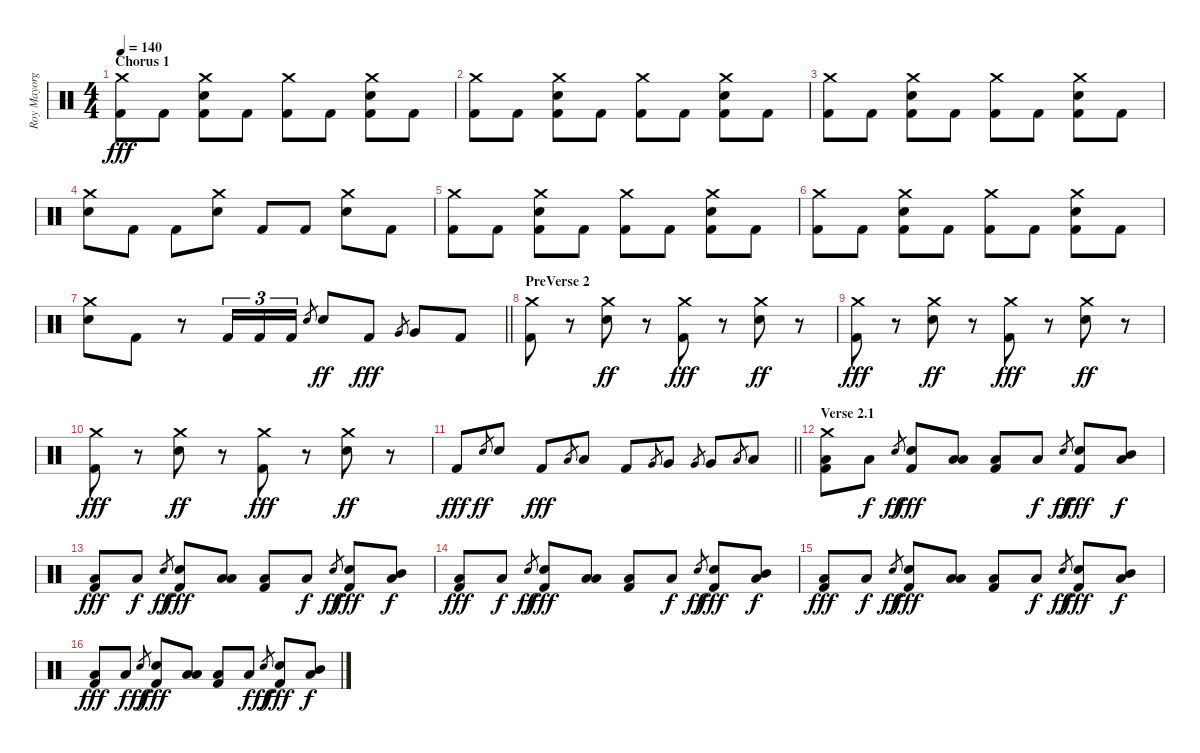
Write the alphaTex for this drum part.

\track ("Roy Mayorga" "Roy Mayorg") {instrument percussion}
\staff {score}
\articulation defaults
\ts (4 4)
\section ("" "Chorus 1")
\tempo 140
\clef neutral
\ks c
("Crash medium (hit)" "Kick (hit) 2").8{dy fff} "Kick (hit) 2".8 ("Crash medium (hit)" "Electric Snare (hit)" "Kick (hit) 2").8 "Kick (hit) 2".8 ("Crash medium (hit)" "Kick (hit) 2").8 "Kick (hit) 2".8 ("Crash medium (hit)" "Electric Snare (hit)" "Kick (hit) 2").8 "Kick (hit) 2".8 |
("Crash medium (hit)" "Kick (hit) 2").8 "Kick (hit) 2".8 ("Crash medium (hit)" "Electric Snare (hit)" "Kick (hit) 2").8 "Kick (hit) 2".8 ("Crash medium (hit)" "Kick (hit) 2").8 "Kick (hit) 2".8 ("Crash medium (hit)" "Electric Snare (hit)" "Kick (hit) 2").8 "Kick (hit) 2".8 |
("Crash medium (hit)" "Kick (hit) 2").8 "Kick (hit) 2".8 ("Crash medium (hit)" "Electric Snare (hit)" "Kick (hit) 2").8 "Kick (hit) 2".8 ("Crash medium (hit)" "Kick (hit) 2").8 "Kick (hit) 2".8 ("Crash medium (hit)" "Electric Snare (hit)" "Kick (hit) 2").8 "Kick (hit) 2".8 |
("Crash medium (hit)" "Electric Snare (hit)").8 "Kick (hit) 2".8 "Kick (hit) 2".8 ("Crash medium (hit)" "Electric Snare (hit)").8 "Kick (hit) 2".8 "Kick (hit) 2".8 ("Crash medium (hit)" "Electric Snare (hit)").8 "Kick (hit) 2".8 |
("Crash medium (hit)" "Kick (hit) 2").8 "Kick (hit) 2".8 ("Crash medium (hit)" "Electric Snare (hit)" "Kick (hit) 2").8 "Kick (hit) 2".8 ("Crash medium (hit)" "Kick (hit) 2").8 "Kick (hit) 2".8 ("Crash medium (hit)" "Electric Snare (hit)" "Kick (hit) 2").8 "Kick (hit) 2".8 |
("Crash medium (hit)" "Kick (hit) 2").8 "Kick (hit) 2".8 ("Crash medium (hit)" "Electric Snare (hit)" "Kick (hit) 2").8 "Kick (hit) 2".8 ("Crash medium (hit)" "Kick (hit) 2").8 "Kick (hit) 2".8 ("Crash medium (hit)" "Electric Snare (hit)" "Kick (hit) 2").8 "Kick (hit) 2".8 |
\barLineRight lightlight
("Crash medium (hit)" "Electric Snare (hit)").8 "Kick (hit) 2".8 r.8 "Kick (hit) 2".16{tu (3 2)} "Kick (hit) 2".16{tu (3 2)} "Kick (hit) 2".16{tu (3 2)} "Electric Snare (hit)".8{gr} "Electric Snare (hit)".8{dy ff} "Kick (hit) 2".8{dy fff} "Very Low Tom (hit)".8{gr} "Very Low Tom (hit)".8 "Kick (hit) 2".8 |
\section ("" "PreVerse 2")
("Crash medium (hit)" "Kick (hit) 2").8 r.8 ("Crash medium (hit)" "Electric Snare (hit)").8{dy ff} r.8 ("Crash medium (hit)" "Kick (hit) 2").8{dy fff} r.8 ("Crash medium (hit)" "Electric Snare (hit)").8{dy ff} r.8 |
("Crash medium (hit)" "Kick (hit) 2").8{dy fff} r.8 ("Crash medium (hit)" "Electric Snare (hit)").8{dy ff} r.8 ("Crash medium (hit)" "Kick (hit) 2").8{dy fff} r.8 ("Crash medium (hit)" "Electric Snare (hit)").8{dy ff} r.8 |
("Crash medium (hit)" "Kick (hit) 2").8{dy fff} r.8 ("Crash medium (hit)" "Electric Snare (hit)").8{dy ff} r.8 ("Crash medium (hit)" "Kick (hit) 2").8{dy fff} r.8 ("Crash medium (hit)" "Electric Snare (hit)").8{dy ff} r.8 |
\barLineRight lightlight "Kick (hit) 2".8{dy fff} "Electric Snare (hit)".8{gr dy ff} "Electric Snare (hit)".8 "Kick (hit) 2".8{dy fff} "Low Tom (hit)".8{gr} "Low Tom (hit)".8 "Kick (hit) 2".8 "Very Low Tom (hit)".8{gr} "Very Low Tom (hit)".8 "Very Low Tom (hit)".8{gr} "Very Low Tom (hit)".8 "Low Floor Tom (hit)".8{gr} "Low Floor Tom (hit)".8
|
\section ("" "Verse 2.1")
("Crash medium (hit)" "Low Floor Tom (hit)" "Kick (hit) 2").8 "Low Floor Tom (hit)".8{dy f} "Electric Snare (hit)".8{gr dy ff} ("Electric Snare (hit)" "Kick (hit) 2").8{dy fff} ("Low Tom (hit)" "Low Floor Tom (hit)").8 ("Low Floor Tom (hit)" "Kick (hit) 2").8 "Low Floor Tom (hit)".8{dy f} "Electric Snare (hit)".8{gr dy ff} ("Electric Snare (hit)" "Kick (hit) 2").8{dy fff} ("Mid Tom (hit)" "Low Floor Tom (hit)").8{dy f} |
("Low Floor Tom (hit)" "Kick (hit) 2").8{dy fff} "Low Floor Tom (hit)".8{dy f} "Electric Snare (hit)".8{gr dy ff} ("Electric Snare (hit)" "Kick (hit) 2").8{dy fff} ("Low Tom (hit)" "Low Floor Tom (hit)").8 ("Low Floor Tom (hit)" "Kick (hit) 2").8 "Low Floor Tom (hit)".8{dy f} "Electric Snare (hit)".8{gr dy ff} ("Electric Snare (hit)" "Kick (hit) 2").8{dy fff} ("Mid Tom (hit)" "Low Floor Tom (hit)").8{dy f} |
("Low Floor Tom (hit)" "Kick (hit) 2").8{dy fff} "Low Floor Tom (hit)".8{dy f} "Electric Snare (hit)".8{gr dy ff} ("Electric Snare (hit)" "Kick (hit) 2").8{dy fff} ("Low Tom (hit)" "Low Floor Tom (hit)").8 ("Low Floor Tom (hit)" "Kick (hit) 2").8 "Low Floor Tom (hit)".8{dy f} "Electric Snare (hit)".8{gr dy ff} ("Electric Snare (hit)" "Kick (hit) 2").8{dy fff} ("Mid Tom (hit)" "Low Floor Tom (hit)").8{dy f} |
("Low Floor Tom (hit)" "Kick (hit) 2").8{dy fff} "Low Floor Tom (hit)".8{dy f} "Electric Snare (hit)".8{gr dy ff} ("Electric Snare (hit)" "Kick (hit) 2").8{dy fff} ("Low Tom (hit)" "Low Floor Tom (hit)").8 ("Low Floor Tom (hit)" "Kick (hit) 2").8 "Low Floor Tom (hit)".8{dy f} "Electric Snare (hit)".8{gr dy ff} ("Electric Snare (hit)" "Kick (hit) 2").8{dy fff} ("Mid Tom (hit)" "Low Floor Tom (hit)").8{dy f} |
("Low Floor Tom (hit)" "Kick (hit) 2").8{dy fff} "Low Floor Tom (hit)".8{dy f} "Electric Snare (hit)".8{gr dy ff} ("Electric Snare (hit)" "Kick (hit) 2").8{dy fff} ("Low Tom (hit)" "Low Floor Tom (hit)").8 ("Low Floor Tom (hit)" "Kick (hit) 2").8 "Low Floor Tom (hit)".8{dy f} "Electric Snare (hit)".8{gr dy ff} ("Electric Snare (hit)" "Kick (hit) 2").8{dy fff} ("Mid Tom (hit)" "Low Floor Tom (hit)").8{dy f}
